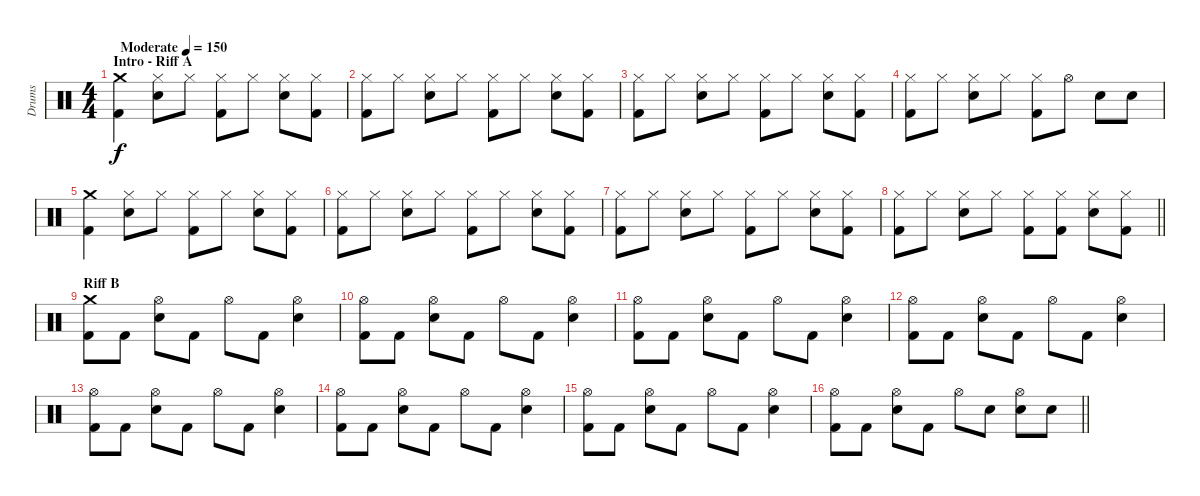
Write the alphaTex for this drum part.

\track ("Drums" "Drums") {instrument percussion}
\staff {score}
\articulation defaults
\ts (4 4)
\section ("" "Intro - Riff A")
\tempo (150 "Moderate")
\clef neutral
\ks c
("Crash medium (hit)" "Kick (hit) 2").4{dy f} ("Hi-Hat (closed)" "Electric Snare (hit)").8 "Hi-Hat (closed)".8 ("Hi-Hat (closed)" "Kick (hit) 2").8 "Hi-Hat (closed)".8 ("Hi-Hat (closed)" "Electric Snare (hit)").8 ("Hi-Hat (closed)" "Kick (hit) 2").8 |
("Hi-Hat (closed)" "Kick (hit) 2").8 "Hi-Hat (closed)".8 ("Hi-Hat (closed)" "Electric Snare (hit)").8 "Hi-Hat (closed)".8 ("Hi-Hat (closed)" "Kick (hit) 2").8 "Hi-Hat (closed)".8 ("Hi-Hat (closed)" "Electric Snare (hit)").8 ("Hi-Hat (closed)" "Kick (hit) 2").8 |
("Hi-Hat (closed)" "Kick (hit) 2").8 "Hi-Hat (closed)".8 ("Hi-Hat (closed)" "Electric Snare (hit)").8 "Hi-Hat (closed)".8 ("Hi-Hat (closed)" "Kick (hit) 2").8 "Hi-Hat (closed)".8 ("Hi-Hat (closed)" "Electric Snare (hit)").8 ("Hi-Hat (closed)" "Kick (hit) 2").8 |
("Hi-Hat (closed)" "Kick (hit) 2").8 "Hi-Hat (closed)".8 ("Hi-Hat (closed)" "Electric Snare (hit)").8 "Hi-Hat (closed)".8 ("Hi-Hat (closed)" "Kick (hit) 2").8 "Hi-Hat (open)".8 "Electric Snare (hit)".8 "Electric Snare (hit)".8 |
("Crash medium (hit)" "Kick (hit) 2").4 ("Hi-Hat (closed)" "Electric Snare (hit)").8 "Hi-Hat (closed)".8 ("Hi-Hat (closed)" "Kick (hit) 2").8 "Hi-Hat (closed)".8 ("Hi-Hat (closed)" "Electric Snare (hit)").8 ("Hi-Hat (closed)" "Kick (hit) 2").8 |
("Hi-Hat (closed)" "Kick (hit) 2").8 "Hi-Hat (closed)".8 ("Hi-Hat (closed)" "Electric Snare (hit)").8 "Hi-Hat (closed)".8 ("Hi-Hat (closed)" "Kick (hit) 2").8 "Hi-Hat (closed)".8 ("Hi-Hat (closed)" "Electric Snare (hit)").8 ("Hi-Hat (closed)" "Kick (hit) 2").8 |
("Hi-Hat (closed)" "Kick (hit) 2").8 "Hi-Hat (closed)".8 ("Hi-Hat (closed)" "Electric Snare (hit)").8 "Hi-Hat (closed)".8 ("Hi-Hat (closed)" "Kick (hit) 2").8 "Hi-Hat (closed)".8 ("Hi-Hat (closed)" "Electric Snare (hit)").8 ("Hi-Hat (closed)" "Kick (hit) 2").8 |
\barLineRight lightlight
("Hi-Hat (closed)" "Kick (hit) 2").8 "Hi-Hat (closed)".8 ("Hi-Hat (closed)" "Electric Snare (hit)").8 "Hi-Hat (closed)".8 ("Hi-Hat (closed)" "Kick (hit) 2").8 ("Hi-Hat (closed)" "Kick (hit) 2").8 ("Hi-Hat (closed)" "Electric Snare (hit)").8 ("Hi-Hat (closed)" "Kick (hit) 2").8 |
\section ("" "Riff B")
("Crash medium (hit)" "Kick (hit) 2").8 "Kick (hit) 2".8 ("Hi-Hat (open)" "Electric Snare (hit)").8 "Kick (hit) 2".8 "Hi-Hat (open)".8 "Kick (hit) 2".8 ("Hi-Hat (open)" "Electric Snare (hit)").4 |
("Hi-Hat (open)" "Kick (hit) 2").8 "Kick (hit) 2".8 ("Hi-Hat (open)" "Electric Snare (hit)").8 "Kick (hit) 2".8 "Hi-Hat (open)".8 "Kick (hit) 2".8 ("Hi-Hat (open)" "Electric Snare (hit)").4 |
("Hi-Hat (open)" "Kick (hit) 2").8 "Kick (hit) 2".8 ("Hi-Hat (open)" "Electric Snare (hit)").8 "Kick (hit) 2".8 "Hi-Hat (open)".8 "Kick (hit) 2".8 ("Hi-Hat (open)" "Electric Snare (hit)").4 |
("Hi-Hat (open)" "Kick (hit) 2").8 "Kick (hit) 2".8 ("Hi-Hat (open)" "Electric Snare (hit)").8 "Kick (hit) 2".8 "Hi-Hat (open)".8 "Kick (hit) 2".8 ("Hi-Hat (open)" "Electric Snare (hit)").4 |
("Hi-Hat (open)" "Kick (hit) 2").8 "Kick (hit) 2".8 ("Hi-Hat (open)" "Electric Snare (hit)").8 "Kick (hit) 2".8 "Hi-Hat (open)".8 "Kick (hit) 2".8 ("Hi-Hat (open)" "Electric Snare (hit)").4 |
("Hi-Hat (open)" "Kick (hit) 2").8 "Kick (hit) 2".8 ("Hi-Hat (open)" "Electric Snare (hit)").8 "Kick (hit) 2".8 "Hi-Hat (open)".8 "Kick (hit) 2".8 ("Hi-Hat (open)" "Electric Snare (hit)").4 |
("Hi-Hat (open)" "Kick (hit) 2").8 "Kick (hit) 2".8 ("Hi-Hat (open)" "Electric Snare (hit)").8 "Kick (hit) 2".8 "Hi-Hat (open)".8 "Kick (hit) 2".8 ("Hi-Hat (open)" "Electric Snare (hit)").4 |
\barLineRight lightlight
("Hi-Hat (open)" "Kick (hit) 2").8 "Kick (hit) 2".8 ("Hi-Hat (open)" "Electric Snare (hit)").8 "Kick (hit) 2".8 "Hi-Hat (open)".8 "Electric Snare (hit)".8 ("Hi-Hat (open)" "Electric Snare (hit)").8 "Electric Snare (hit)".8
